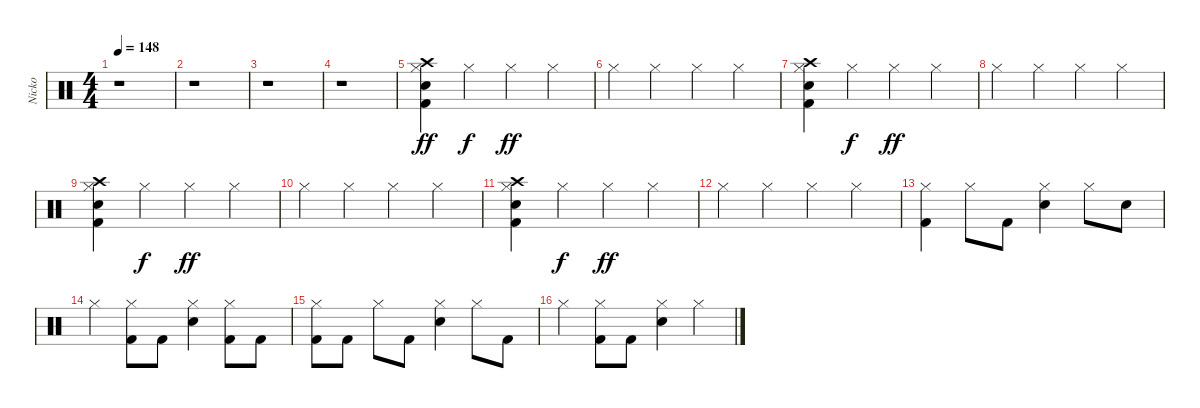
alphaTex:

\track ("Nicko" "Nicko") {instrument percussion}
\staff {score}
\articulation defaults
\ts (4 4)
\tempo 148
\clef neutral
\ks c
r.1{dy ff} |
r.1 |
r.1 |
r.1 |
("Kick (hit) 2" "Snare (hit) 2" "Hi-Hat (closed)" "Crash high (hit)").4 "Hi-Hat (closed)".4{dy f} "Hi-Hat (closed)".4{dy ff} "Hi-Hat (closed)".4 |
"Hi-Hat (closed)".4 "Hi-Hat (closed)".4 "Hi-Hat (closed)".4 "Hi-Hat (closed)".4 |
("Kick (hit) 2" "Snare (hit) 2" "Hi-Hat (closed)" "Crash high (hit)").4 "Hi-Hat (closed)".4{dy f} "Hi-Hat (closed)".4{dy ff} "Hi-Hat (closed)".4 |
"Hi-Hat (closed)".4 "Hi-Hat (closed)".4 "Hi-Hat (closed)".4 "Hi-Hat (closed)".4 |
("Kick (hit) 2" "Snare (hit) 2" "Hi-Hat (closed)" "Crash high (hit)").4 "Hi-Hat (closed)".4{dy f} "Hi-Hat (closed)".4{dy ff} "Hi-Hat (closed)".4 |
"Hi-Hat (closed)".4 "Hi-Hat (closed)".4 "Hi-Hat (closed)".4 "Hi-Hat (closed)".4 |
("Kick (hit) 2" "Snare (hit) 2" "Hi-Hat (closed)" "Crash high (hit)").4 "Hi-Hat (closed)".4{dy f} "Hi-Hat (closed)".4{dy ff} "Hi-Hat (closed)".4 |
"Hi-Hat (closed)".4 "Hi-Hat (closed)".4 "Hi-Hat (closed)".4 "Hi-Hat (closed)".4 |
("Kick (hit) 2" "Hi-Hat (closed)").4 "Hi-Hat (closed)".8 "Kick (hit) 2".8 ("Snare (hit) 2" "Hi-Hat (closed)").4 "Hi-Hat (closed)".8 "Snare (hit) 2".8 |
"Hi-Hat (closed)".4 ("Kick (hit) 2" "Hi-Hat (closed)").8 "Kick (hit) 2".8 ("Snare (hit) 2" "Hi-Hat (closed)").4 ("Kick (hit) 2" "Hi-Hat (closed)").8 "Kick (hit) 2".8 |
("Kick (hit) 2" "Hi-Hat (closed)").8 "Kick (hit) 2".8 "Hi-Hat (closed)".8 "Kick (hit) 2".8 ("Snare (hit) 2" "Hi-Hat (closed)").4 "Hi-Hat (closed)".8 "Kick (hit) 2".8 |
"Hi-Hat (closed)".4 ("Kick (hit) 2" "Hi-Hat (closed)").8 "Kick (hit) 2".8 ("Snare (hit) 2" "Hi-Hat (closed)").4 "Hi-Hat (closed)".4
